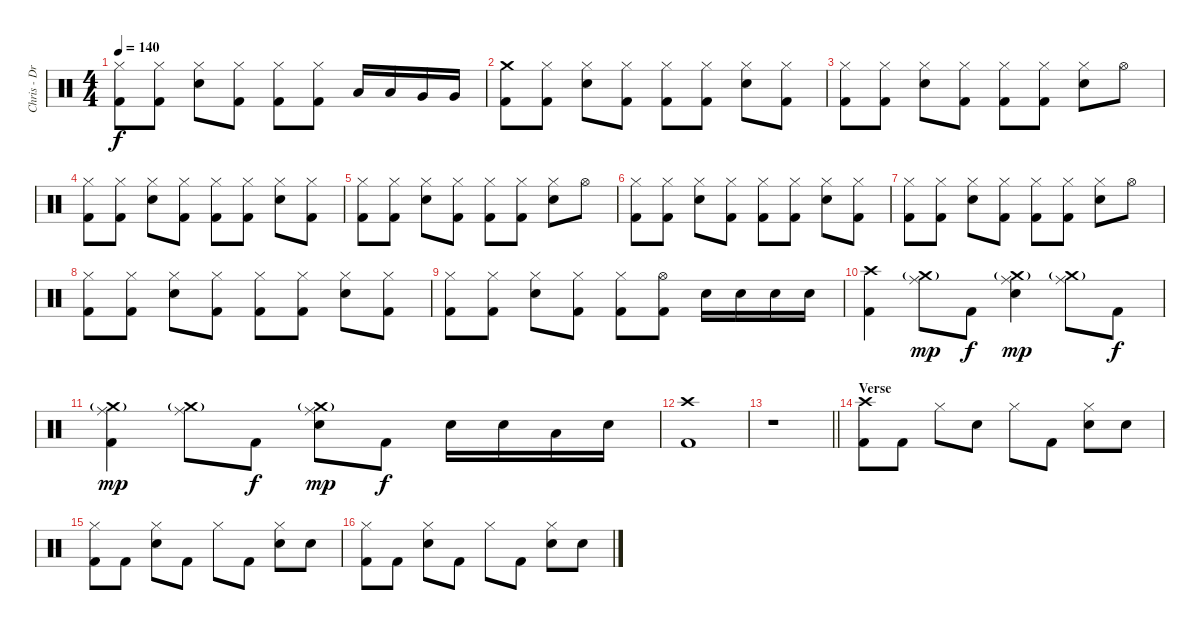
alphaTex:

\track ("Chris - Drums" "Chris - Dr") {instrument percussion}
\staff {score}
\articulation defaults
\ts (4 4)
\tempo 140
\clef neutral
\ks c
("Hi-Hat (closed)" "Kick (hit) 2").8{dy f} ("Hi-Hat (closed)" "Kick (hit) 2").8 ("Hi-Hat (closed)" "Electric Snare (hit)").8 ("Hi-Hat (closed)" "Kick (hit) 2").8 ("Hi-Hat (closed)" "Kick (hit) 2").8 ("Hi-Hat (closed)" "Kick (hit) 2").8 "Low Tom (hit)".16 "Low Tom (hit)".16 "Very Low Tom (hit)".16 "Very Low Tom (hit)".16 |
("Crash medium (hit)" "Kick (hit) 2").8 ("Hi-Hat (closed)" "Kick (hit) 2").8 ("Hi-Hat (closed)" "Electric Snare (hit)").8 ("Hi-Hat (closed)" "Kick (hit) 2").8 ("Hi-Hat (closed)" "Kick (hit) 2").8 ("Hi-Hat (closed)" "Kick (hit) 2").8 ("Hi-Hat (closed)" "Electric Snare (hit)").8 ("Hi-Hat (closed)" "Kick (hit) 2").8 |
("Hi-Hat (closed)" "Kick (hit) 2").8 ("Hi-Hat (closed)" "Kick (hit) 2").8 ("Hi-Hat (closed)" "Electric Snare (hit)").8 ("Hi-Hat (closed)" "Kick (hit) 2").8 ("Hi-Hat (closed)" "Kick (hit) 2").8 ("Hi-Hat (closed)" "Kick (hit) 2").8 ("Hi-Hat (closed)" "Electric Snare (hit)").8 "Hi-Hat (open)".8 |
("Hi-Hat (closed)" "Kick (hit) 2").8 ("Hi-Hat (closed)" "Kick (hit) 2").8 ("Hi-Hat (closed)" "Electric Snare (hit)").8 ("Hi-Hat (closed)" "Kick (hit) 2").8 ("Hi-Hat (closed)" "Kick (hit) 2").8 ("Hi-Hat (closed)" "Kick (hit) 2").8 ("Hi-Hat (closed)" "Electric Snare (hit)").8 ("Hi-Hat (closed)" "Kick (hit) 2").8 |
("Hi-Hat (closed)" "Kick (hit) 2").8 ("Hi-Hat (closed)" "Kick (hit) 2").8 ("Hi-Hat (closed)" "Electric Snare (hit)").8 ("Hi-Hat (closed)" "Kick (hit) 2").8 ("Hi-Hat (closed)" "Kick (hit) 2").8 ("Hi-Hat (closed)" "Kick (hit) 2").8 ("Hi-Hat (closed)" "Electric Snare (hit)").8 "Hi-Hat (open)".8 |
("Hi-Hat (closed)" "Kick (hit) 2").8 ("Hi-Hat (closed)" "Kick (hit) 2").8 ("Hi-Hat (closed)" "Electric Snare (hit)").8 ("Hi-Hat (closed)" "Kick (hit) 2").8 ("Hi-Hat (closed)" "Kick (hit) 2").8 ("Hi-Hat (closed)" "Kick (hit) 2").8 ("Hi-Hat (closed)" "Electric Snare (hit)").8 ("Hi-Hat (closed)" "Kick (hit) 2").8 |
("Hi-Hat (closed)" "Kick (hit) 2").8 ("Hi-Hat (closed)" "Kick (hit) 2").8 ("Hi-Hat (closed)" "Electric Snare (hit)").8 ("Hi-Hat (closed)" "Kick (hit) 2").8 ("Hi-Hat (closed)" "Kick (hit) 2").8 ("Hi-Hat (closed)" "Kick (hit) 2").8 ("Hi-Hat (closed)" "Electric Snare (hit)").8 "Hi-Hat (open)".8 |
("Hi-Hat (closed)" "Kick (hit) 2").8 ("Hi-Hat (closed)" "Kick (hit) 2").8 ("Hi-Hat (closed)" "Electric Snare (hit)").8 ("Hi-Hat (closed)" "Kick (hit) 2").8 ("Hi-Hat (closed)" "Kick (hit) 2").8 ("Hi-Hat (closed)" "Kick (hit) 2").8 ("Hi-Hat (closed)" "Electric Snare (hit)").8 ("Hi-Hat (closed)" "Kick (hit) 2").8 |
("Hi-Hat (closed)" "Kick (hit) 2").8 ("Hi-Hat (closed)" "Kick (hit) 2").8 ("Hi-Hat (closed)" "Electric Snare (hit)").8 ("Hi-Hat (closed)" "Kick (hit) 2").8 ("Hi-Hat (closed)" "Kick (hit) 2").8 ("Hi-Hat (open)" "Kick (hit) 2").8 "Electric Snare (hit)".16 "Electric Snare (hit)".16 "Electric Snare (hit)".16 "Electric Snare (hit)".16 |
("Crash high (hit)" "Kick (hit) 2").4 ("Crash medium (hit)"{g} "Ride (middle)").8{dy mp} "Kick (hit) 2".8{dy f} ("Crash medium (hit)"{g} "Ride (middle)" "Electric Snare (hit)").4{dy mp} ("Crash medium (hit)"{g} "Ride (middle)").8 "Kick (hit) 2".8{dy f} |
("Crash medium (hit)"{g} "Ride (middle)" "Kick (hit) 2").4{dy mp} ("Crash medium (hit)"{g} "Ride (middle)").8 "Kick (hit) 2".8{dy f} ("Crash medium (hit)"{g} "Ride (middle)" "Electric Snare (hit)").8{dy mp} "Kick (hit) 2".8{dy f} "Electric Snare (hit)".16 "Electric Snare (hit)".16 "Low Tom (hit)".16 "Electric Snare (hit)".16 |
("Crash high (hit)" "Kick (hit) 2").1 |
\barLineRight lightlight
r.1 |
\section ("" "Verse")
("Crash high (hit)" "Kick (hit) 2").8 "Kick (hit) 2".8 "Hi-Hat (closed)".8 "Electric Snare (hit)".8 "Hi-Hat (closed)".8 "Kick (hit) 2".8 ("Hi-Hat (closed)" "Electric Snare (hit)").8 "Electric Snare (hit)".8 |
("Hi-Hat (closed)" "Kick (hit) 2").8 "Kick (hit) 2".8 ("Hi-Hat (closed)" "Electric Snare (hit)").8 "Kick (hit) 2".8 "Hi-Hat (closed)".8 "Kick (hit) 2".8 ("Hi-Hat (closed)" "Electric Snare (hit)").8 "Electric Snare (hit)".8 |
("Hi-Hat (closed)" "Kick (hit) 2").8 "Kick (hit) 2".8 ("Hi-Hat (closed)" "Electric Snare (hit)").8 "Kick (hit) 2".8 "Hi-Hat (closed)".8 "Kick (hit) 2".8 ("Hi-Hat (closed)" "Electric Snare (hit)").8 "Electric Snare (hit)".8
